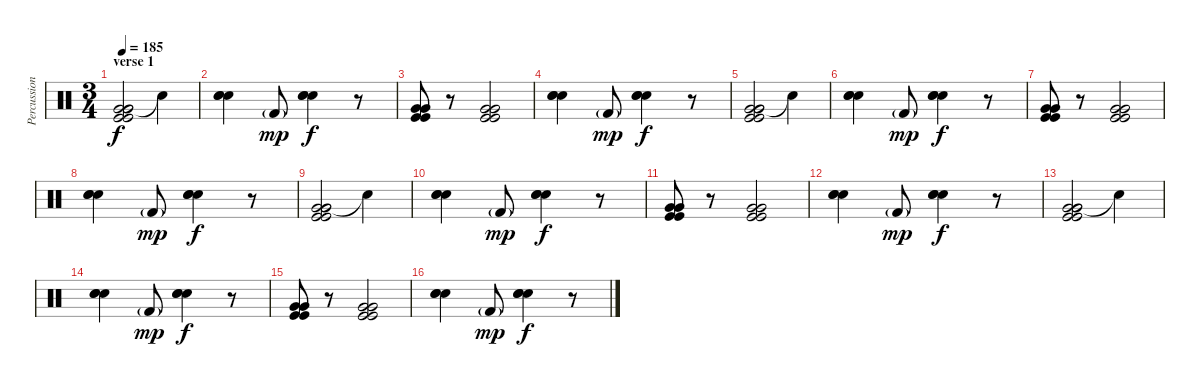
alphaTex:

\track ("Percussions" "Percussion") {instrument percussion}
\staff {score}
\articulation defaults
\ts (3 4)
\section ("" "verse 1")
\tempo 185
\clef neutral
\ks c
("Very Low Tom (hit)" "Very Low Tom (hit)" "Very Low Tom (hit)" "Kick (hit)" "Kick (hit)").2{dy f} "Snare (hit)"{t}.4 |
("Electric Snare (hit)" "Electric Snare (hit)" "Electric Snare (hit)").4 "Kick (hit) 2"{g}.8{dy mp volume 12} ("Electric Snare (hit)" "Electric Snare (hit)" "Electric Snare (hit)").4{dy f volume 16} r.8 |
("Very Low Tom (hit)" "Very Low Tom (hit)" "Kick (hit)" "Kick (hit)").8 r.8 ("Very Low Tom (hit)" "Very Low Tom (hit)" "Kick (hit)" "Kick (hit)").2 |
("Electric Snare (hit)" "Electric Snare (hit)" "Electric Snare (hit)").4 "Kick (hit) 2"{g}.8{dy mp volume 12} ("Electric Snare (hit)" "Electric Snare (hit)" "Electric Snare (hit)").4{dy f volume 16} r.8 |
("Very Low Tom (hit)" "Very Low Tom (hit)" "Very Low Tom (hit)" "Kick (hit)" "Kick (hit)").2 "Snare (hit)"{t}.4 |
("Electric Snare (hit)" "Electric Snare (hit)" "Electric Snare (hit)").4 "Kick (hit) 2"{g}.8{dy mp volume 12} ("Electric Snare (hit)" "Electric Snare (hit)" "Electric Snare (hit)").4{dy f volume 16} r.8 |
("Very Low Tom (hit)" "Very Low Tom (hit)" "Kick (hit)" "Kick (hit)").8 r.8 ("Very Low Tom (hit)" "Very Low Tom (hit)" "Kick (hit)" "Kick (hit)").2 |
("Electric Snare (hit)" "Electric Snare (hit)" "Electric Snare (hit)").4 "Kick (hit) 2"{g}.8{dy mp volume 12} ("Electric Snare (hit)" "Electric Snare (hit)" "Electric Snare (hit)").4{dy f volume 16} r.8 |
("Very Low Tom (hit)" "Very Low Tom (hit)" "Very Low Tom (hit)" "Kick (hit)" "Kick (hit)").2 "Snare (hit)"{t}.4 |
("Electric Snare (hit)" "Electric Snare (hit)" "Electric Snare (hit)").4 "Kick (hit) 2"{g}.8{dy mp volume 12} ("Electric Snare (hit)" "Electric Snare (hit)" "Electric Snare (hit)").4{dy f volume 16} r.8 |
("Very Low Tom (hit)" "Very Low Tom (hit)" "Kick (hit)" "Kick (hit)").8 r.8 ("Very Low Tom (hit)" "Very Low Tom (hit)" "Kick (hit)" "Kick (hit)").2 |
("Electric Snare (hit)" "Electric Snare (hit)" "Electric Snare (hit)").4 "Kick (hit) 2"{g}.8{dy mp volume 12} ("Electric Snare (hit)" "Electric Snare (hit)" "Electric Snare (hit)").4{dy f volume 16} r.8 |
("Very Low Tom (hit)" "Very Low Tom (hit)" "Very Low Tom (hit)" "Kick (hit)" "Kick (hit)").2 "Snare (hit)"{t}.4 |
("Electric Snare (hit)" "Electric Snare (hit)" "Electric Snare (hit)").4 "Kick (hit) 2"{g}.8{dy mp volume 12} ("Electric Snare (hit)" "Electric Snare (hit)" "Electric Snare (hit)").4{dy f volume 16} r.8 |
("Very Low Tom (hit)" "Very Low Tom (hit)" "Kick (hit)" "Kick (hit)").8 r.8 ("Very Low Tom (hit)" "Very Low Tom (hit)" "Kick (hit)" "Kick (hit)").2 |
("Electric Snare (hit)" "Electric Snare (hit)" "Electric Snare (hit)").4 "Kick (hit) 2"{g}.8{dy mp volume 12} ("Electric Snare (hit)" "Electric Snare (hit)" "Electric Snare (hit)").4{dy f volume 16} r.8
